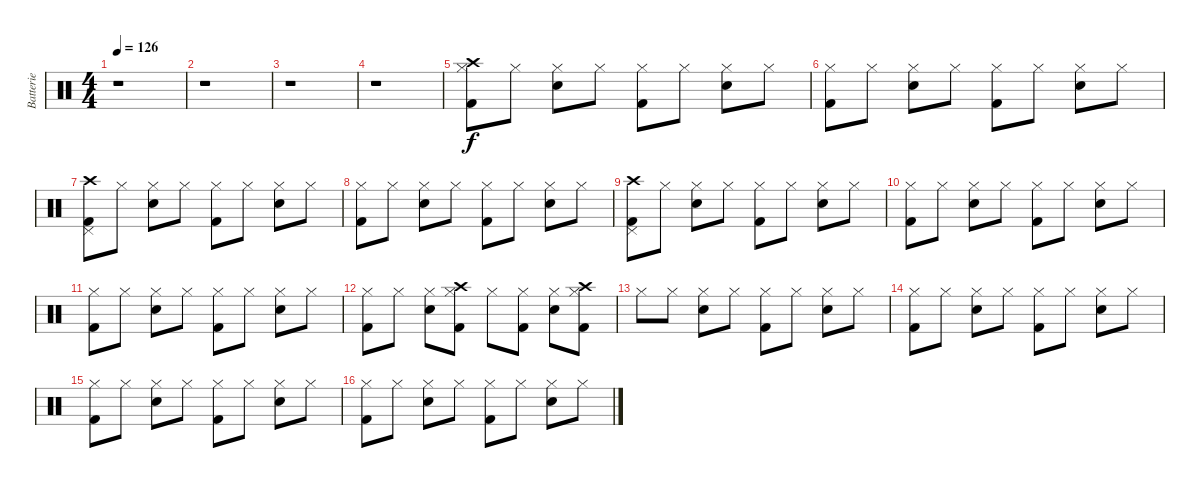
\track ("Batterie" "Batterie") {instrument percussion}
\staff {score}
\articulation defaults
\ts (4 4)
\tempo 126
\clef neutral
\ks c
r.1{dy f} |
r.1 |
r.1 |
r.1 |
("Hi-Hat (closed)" "Crash high (hit)" "Kick (hit) 2").8 "Hi-Hat (closed)".8 ("Hi-Hat (closed)" "Snare (hit) 2").8 "Hi-Hat (closed)".8 ("Hi-Hat (closed)" "Kick (hit) 2").8 "Hi-Hat (closed)".8 ("Hi-Hat (closed)" "Snare (hit) 2").8 "Hi-Hat (closed)".8 |
("Hi-Hat (closed)" "Kick (hit) 2").8 "Hi-Hat (closed)".8 ("Hi-Hat (closed)" "Snare (hit) 2").8 "Hi-Hat (closed)".8 ("Hi-Hat (closed)" "Kick (hit) 2").8 "Hi-Hat (closed)".8 ("Hi-Hat (closed)" "Snare (hit) 2").8 "Hi-Hat (closed)".8 |
("Pedal Hi-Hat (hit)" "Crash high (hit)" "Kick (hit) 2").8 "Hi-Hat (closed)".8 ("Hi-Hat (closed)" "Snare (hit) 2").8 "Hi-Hat (closed)".8 ("Hi-Hat (closed)" "Kick (hit) 2").8 "Hi-Hat (closed)".8 ("Hi-Hat (closed)" "Snare (hit) 2").8 "Hi-Hat (closed)".8 |
("Hi-Hat (closed)" "Kick (hit) 2").8 "Hi-Hat (closed)".8 ("Hi-Hat (closed)" "Snare (hit) 2").8 "Hi-Hat (closed)".8 ("Hi-Hat (closed)" "Kick (hit) 2").8 "Hi-Hat (closed)".8 ("Hi-Hat (closed)" "Snare (hit) 2").8 "Hi-Hat (closed)".8 |
("Pedal Hi-Hat (hit)" "Crash high (hit)" "Kick (hit) 2").8 "Hi-Hat (closed)".8 ("Hi-Hat (closed)" "Snare (hit) 2").8 "Hi-Hat (closed)".8 ("Hi-Hat (closed)" "Kick (hit) 2").8 "Hi-Hat (closed)".8 ("Hi-Hat (closed)" "Snare (hit) 2").8 "Hi-Hat (closed)".8 |
("Hi-Hat (closed)" "Kick (hit) 2").8 "Hi-Hat (closed)".8 ("Hi-Hat (closed)" "Snare (hit) 2").8 "Hi-Hat (closed)".8 ("Hi-Hat (closed)" "Kick (hit) 2").8 "Hi-Hat (closed)".8 ("Hi-Hat (closed)" "Snare (hit) 2").8 "Hi-Hat (closed)".8 |
("Hi-Hat (closed)" "Kick (hit) 2").8 "Hi-Hat (closed)".8 ("Hi-Hat (closed)" "Snare (hit) 2").8 "Hi-Hat (closed)".8 ("Hi-Hat (closed)" "Kick (hit) 2").8 "Hi-Hat (closed)".8 ("Hi-Hat (closed)" "Snare (hit) 2").8 "Hi-Hat (closed)".8 |
("Hi-Hat (closed)" "Kick (hit) 2").8 "Hi-Hat (closed)".8 ("Hi-Hat (closed)" "Snare (hit) 2").8 ("Hi-Hat (closed)" "Crash high (hit)" "Kick (hit) 2").8 "Hi-Hat (closed)".8 ("Hi-Hat (closed)" "Kick (hit) 2").8 ("Hi-Hat (closed)" "Snare (hit) 2").8 ("Hi-Hat (closed)" "Crash high (hit)" "Kick (hit) 2").8 |
"Hi-Hat (closed)".8 "Hi-Hat (closed)".8 ("Hi-Hat (closed)" "Snare (hit) 2").8 "Hi-Hat (closed)".8 ("Hi-Hat (closed)" "Kick (hit) 2").8 "Hi-Hat (closed)".8 ("Hi-Hat (closed)" "Snare (hit) 2").8 "Hi-Hat (closed)".8 |
("Hi-Hat (closed)" "Kick (hit) 2").8 "Hi-Hat (closed)".8 ("Hi-Hat (closed)" "Snare (hit) 2").8 "Hi-Hat (closed)".8 ("Hi-Hat (closed)" "Kick (hit) 2").8 "Hi-Hat (closed)".8 ("Hi-Hat (closed)" "Snare (hit) 2").8 "Hi-Hat (closed)".8 |
("Hi-Hat (closed)" "Kick (hit) 2").8 "Hi-Hat (closed)".8 ("Hi-Hat (closed)" "Snare (hit) 2").8 "Hi-Hat (closed)".8 ("Hi-Hat (closed)" "Kick (hit) 2").8 "Hi-Hat (closed)".8 ("Hi-Hat (closed)" "Snare (hit) 2").8 "Hi-Hat (closed)".8 |
("Hi-Hat (closed)" "Kick (hit) 2").8 "Hi-Hat (closed)".8 ("Hi-Hat (closed)" "Snare (hit) 2").8 "Hi-Hat (closed)".8 ("Hi-Hat (closed)" "Kick (hit) 2").8 "Hi-Hat (closed)".8 ("Hi-Hat (closed)" "Snare (hit) 2").8 "Hi-Hat (closed)".8
